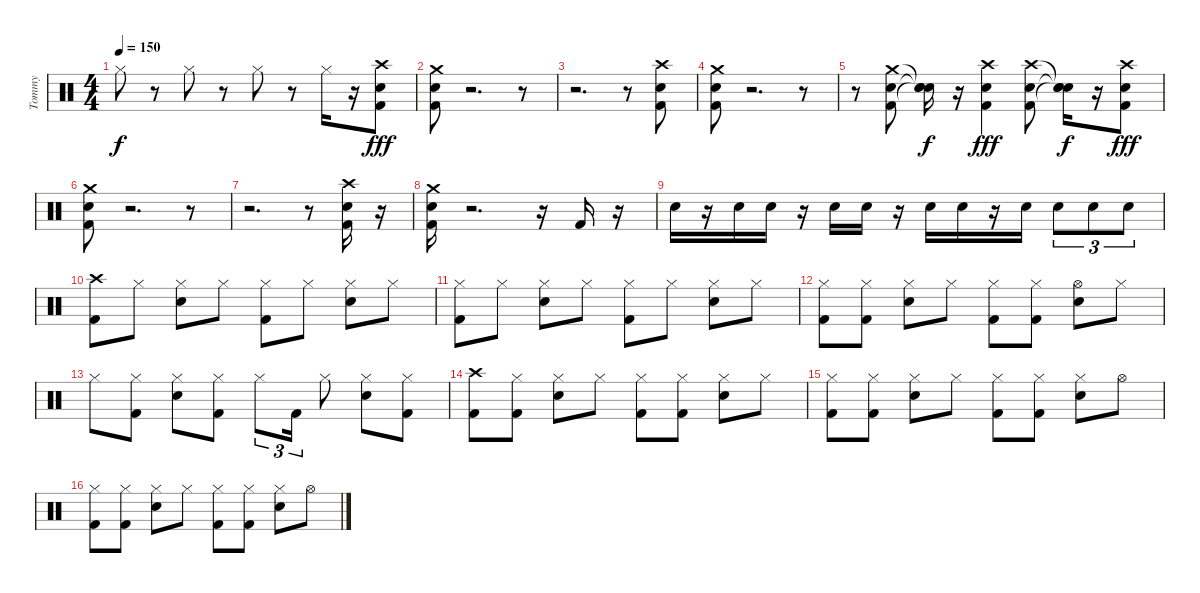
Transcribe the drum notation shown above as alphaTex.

\track ("Tommy" "Tommy") {instrument percussion}
\staff {score}
\articulation defaults
\ts (4 4)
\tempo 150
\clef neutral
\ks c "Hi-Hat (closed)".8{dy f}
r.8 "Hi-Hat (closed)".8 r.8 "Hi-Hat (closed)".8 r.8 "Hi-Hat (closed)".16 r.16 ("Crash high (hit)" "Snare (hit) 2" "Kick (hit) 2").8{dy fff} |
("Kick (hit) 2" "Snare (hit) 2" "Crash medium (hit)").8 r.2{d} r.8 |
r.2{d} r.8 ("Kick (hit) 2" "Snare (hit) 2" "Crash high (hit)").8 |
("Kick (hit) 2" "Snare (hit) 2" "Crash medium (hit)").8 r.2{d} r.8 |
r.8 ("Kick (hit) 2" "Snare (hit) 2" "Crash medium (hit)").8 ("Snare (hit)"{t} "Snare (hit)"{t} "Snare (hit)"{t}).16{dy f} r.16 ("Kick (hit) 2" "Snare (hit) 2" "Crash high (hit)").4{dy fff} ("Kick (hit) 2" "Snare (hit) 2" "Crash high (hit)").8 ("Snare (hit)"{t} "Snare (hit)"{t} "Snare (hit)"{t}).16{dy f} r.16 ("Kick (hit) 2" "Snare (hit) 2" "Crash high (hit)").8{dy fff} |
("Kick (hit) 2" "Snare (hit) 2" "Crash medium (hit)").8 r.2{d} r.8 |
r.2{d} r.8 ("Kick (hit) 2" "Snare (hit) 2" "Crash high (hit)").16 r.16 |
("Kick (hit) 2" "Snare (hit) 2" "Crash medium (hit)").16 r.2{d} r.16 "Kick (hit) 2".16 r.16 |
"Snare (hit) 2".16 r.16 "Snare (hit) 2".16 "Snare (hit) 2".16 r.16 "Snare (hit) 2".16 "Snare (hit) 2".16 r.16 "Snare (hit) 2".16 "Snare (hit) 2".16 r.16 "Snare (hit) 2".16 "Snare (hit) 2".8{tu (3 2)} "Snare (hit) 2".8{tu (3 2)} "Snare (hit) 2".8{tu (3 2)} |
("Kick (hit) 2" "Crash high (hit)").8 "Hi-Hat (closed)".8 ("Snare (hit) 2" "Hi-Hat (closed)").8 "Hi-Hat (closed)".8 ("Kick (hit) 2" "Hi-Hat (closed)").8 "Hi-Hat (closed)".8 ("Snare (hit) 2" "Hi-Hat (closed)").8 "Hi-Hat (closed)".8 |
("Kick (hit) 2" "Hi-Hat (closed)").8 "Hi-Hat (closed)".8 ("Snare (hit) 2" "Hi-Hat (closed)").8 "Hi-Hat (closed)".8 ("Kick (hit) 2" "Hi-Hat (closed)").8 "Hi-Hat (closed)".8 ("Snare (hit) 2" "Hi-Hat (closed)").8 "Hi-Hat (closed)".8 |
("Kick (hit) 2" "Hi-Hat (closed)").8 ("Kick (hit) 2" "Hi-Hat (closed)").8 ("Snare (hit) 2" "Hi-Hat (closed)").8 "Hi-Hat (closed)".8 ("Kick (hit) 2" "Hi-Hat (closed)").8 ("Kick (hit) 2" "Hi-Hat (closed)").8 ("Snare (hit) 2" "Hi-Hat (open)").8 "Hi-Hat (closed)".8 |
"Hi-Hat (closed)".8 ("Kick (hit) 2" "Hi-Hat (closed)").8 ("Snare (hit) 2" "Hi-Hat (closed)").8 ("Hi-Hat (closed)" "Kick (hit) 2").8 "Hi-Hat (closed)".8{tu (3 2)} "Kick (hit) 2".16{tu (3 2)} "Hi-Hat (closed)".8 ("Snare (hit) 2" "Hi-Hat (closed)").8 ("Hi-Hat (closed)" "Kick (hit) 2").8 |
("Kick (hit) 2" "Crash high (hit)").8 ("Kick (hit) 2" "Hi-Hat (closed)").8 ("Snare (hit) 2" "Hi-Hat (closed)").8 "Hi-Hat (closed)".8 ("Kick (hit) 2" "Hi-Hat (closed)").8 ("Kick (hit) 2" "Hi-Hat (closed)").8 ("Snare (hit) 2" "Hi-Hat (closed)").8 "Hi-Hat (closed)".8 |
("Kick (hit) 2" "Hi-Hat (closed)").8 ("Kick (hit) 2" "Hi-Hat (closed)").8 ("Snare (hit) 2" "Hi-Hat (closed)").8 "Hi-Hat (closed)".8 ("Kick (hit) 2" "Hi-Hat (closed)").8 ("Kick (hit) 2" "Hi-Hat (closed)").8 ("Snare (hit) 2" "Hi-Hat (closed)").8 "Hi-Hat (open)".8 |
("Hi-Hat (closed)" "Kick (hit) 2").8 ("Kick (hit) 2" "Hi-Hat (closed)").8 ("Snare (hit) 2" "Hi-Hat (closed)").8 "Hi-Hat (closed)".8 ("Kick (hit) 2" "Hi-Hat (closed)").8 ("Kick (hit) 2" "Hi-Hat (closed)").8 ("Snare (hit) 2" "Hi-Hat (closed)").8 "Hi-Hat (open)".8
